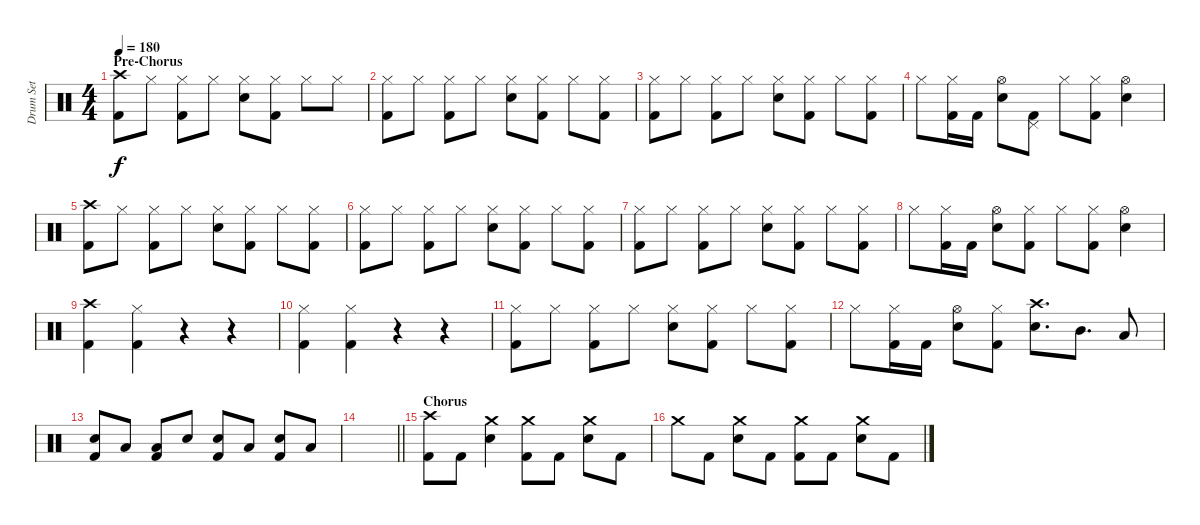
\track ("Drum Set" "Drum Set") {instrument percussion}
\staff {score}
\articulation defaults
\ts (4 4)
\section ("" "Pre-Chorus")
\tempo 180
\clef neutral
\ks c
("Crash high (hit)" "Kick (hit) 2").8{dy f} "Hi-Hat (closed)".8 ("Hi-Hat (closed)" "Kick (hit) 2").8 "Hi-Hat (closed)".8 ("Hi-Hat (closed)" "Electric Snare (hit)").8 ("Hi-Hat (closed)" "Kick (hit) 2").8 "Hi-Hat (closed)".8 "Hi-Hat (closed)".8 |
("Hi-Hat (closed)" "Kick (hit) 2").8 "Hi-Hat (closed)".8 ("Hi-Hat (closed)" "Kick (hit) 2").8 "Hi-Hat (closed)".8 ("Hi-Hat (closed)" "Electric Snare (hit)").8 ("Hi-Hat (closed)" "Kick (hit) 2").8 "Hi-Hat (closed)".8 ("Hi-Hat (closed)" "Kick (hit) 2").8 |
("Hi-Hat (closed)" "Kick (hit) 2").8 "Hi-Hat (closed)".8 ("Hi-Hat (closed)" "Kick (hit) 2").8 "Hi-Hat (closed)".8 ("Hi-Hat (closed)" "Electric Snare (hit)").8 ("Hi-Hat (closed)" "Kick (hit) 2").8 "Hi-Hat (closed)".8 ("Hi-Hat (closed)" "Kick (hit) 2").8 |
"Hi-Hat (closed)".8 ("Hi-Hat (closed)" "Kick (hit) 2").16 "Kick (hit) 2".16 ("Hi-Hat (open)" "Electric Snare (hit)").8 ("Pedal Hi-Hat (hit)" "Kick (hit) 2").8 "Hi-Hat (closed)".8 ("Hi-Hat (closed)" "Kick (hit) 2").8 ("Hi-Hat (open)" "Electric Snare (hit)").4 |
("Crash high (hit)" "Kick (hit) 2").8 "Hi-Hat (closed)".8 ("Hi-Hat (closed)" "Kick (hit) 2").8 "Hi-Hat (closed)".8 ("Hi-Hat (closed)" "Electric Snare (hit)").8 ("Hi-Hat (closed)" "Kick (hit) 2").8 "Hi-Hat (closed)".8 ("Hi-Hat (closed)" "Kick (hit) 2").8 |
("Hi-Hat (closed)" "Kick (hit) 2").8 "Hi-Hat (closed)".8 ("Hi-Hat (closed)" "Kick (hit) 2").8 "Hi-Hat (closed)".8 ("Hi-Hat (closed)" "Electric Snare (hit)").8 ("Hi-Hat (closed)" "Kick (hit) 2").8 "Hi-Hat (closed)".8 ("Hi-Hat (closed)" "Kick (hit) 2").8 |
("Hi-Hat (closed)" "Kick (hit) 2").8 "Hi-Hat (closed)".8 ("Hi-Hat (closed)" "Kick (hit) 2").8 "Hi-Hat (closed)".8 ("Hi-Hat (closed)" "Electric Snare (hit)").8 ("Hi-Hat (closed)" "Kick (hit) 2").8 "Hi-Hat (closed)".8 ("Hi-Hat (closed)" "Kick (hit) 2").8 |
"Hi-Hat (closed)".8 ("Hi-Hat (closed)" "Kick (hit) 2").16 "Kick (hit) 2".16 ("Hi-Hat (open)" "Electric Snare (hit)").8 ("Hi-Hat (closed)" "Kick (hit) 2").8 "Hi-Hat (closed)".8 ("Hi-Hat (closed)" "Kick (hit) 2").8 ("Hi-Hat (open)" "Electric Snare (hit)").4 |
("Crash high (hit)" "Kick (hit) 2").4 ("Hi-Hat (closed)" "Kick (hit) 2").4 r.4 r.4 |
("Hi-Hat (closed)" "Kick (hit) 2").4 ("Hi-Hat (closed)" "Kick (hit) 2").4 r.4 r.4 |
("Hi-Hat (closed)" "Kick (hit) 2").8 "Hi-Hat (closed)".8 ("Hi-Hat (closed)" "Kick (hit) 2").8 "Hi-Hat (closed)".8 ("Hi-Hat (closed)" "Electric Snare (hit)").8 ("Hi-Hat (closed)" "Kick (hit) 2").8 "Hi-Hat (closed)".8 ("Hi-Hat (closed)" "Kick (hit) 2").8 |
"Hi-Hat (closed)".8 ("Hi-Hat (closed)" "Kick (hit) 2").16 "Kick (hit) 2".16 ("Hi-Hat (open)" "Electric Snare (hit)").8 ("Hi-Hat (closed)" "Kick (hit) 2").8 ("Electric Snare (hit)" "Crash high (hit)").8{d} "Mid Tom (hit)".8{d} "Low Tom (hit)".8 |
("Electric Snare (hit)" "Kick (hit) 2").8 "Low Floor Tom (hit)".8 ("Low Floor Tom (hit)" "Kick (hit) 2").8 "Electric Snare (hit)".8 ("Electric Snare (hit)" "Kick (hit) 2").8 "Low Floor Tom (hit)".8 ("Electric Snare (hit)" "Kick (hit) 2").8 "Low Floor Tom (hit)".8 |
\barLineRight lightlight
|
\section ("" "Chorus")
("Crash high (hit)" "Kick (hit) 2").8 "Kick (hit) 2".8 ("Crash medium (hit)" "Electric Snare (hit)").4 ("Crash medium (hit)" "Kick (hit) 2").8 "Kick (hit) 2".8 ("Crash medium (hit)" "Electric Snare (hit)").8 "Kick (hit) 2".8 |
"Crash medium (hit)".8 "Kick (hit) 2".8 ("Crash medium (hit)" "Electric Snare (hit)").8 "Kick (hit) 2".8 ("Crash medium (hit)" "Kick (hit) 2").8 "Kick (hit) 2".8 ("Crash medium (hit)" "Electric Snare (hit)").8 "Kick (hit) 2".8
